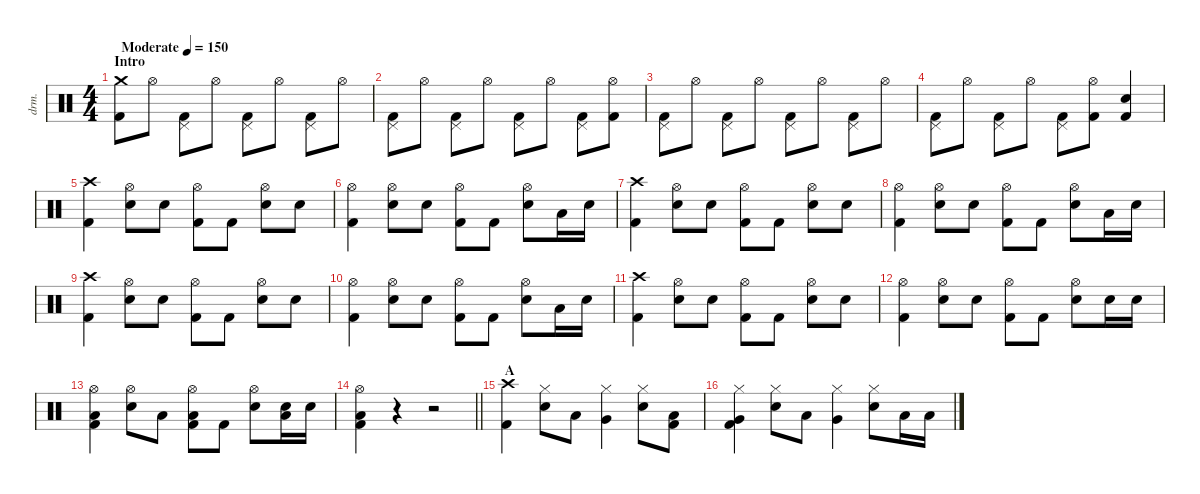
\defaultSystemsLayout 4
\hideDynamics
\bracketExtendMode nobrackets
\otherSystemsTrackNameOrientation horizontal
\track ("Drum" "drm.") {instrument percussion}
\staff {score}
\articulation defaults
\ts (4 4)
\beaming (8 2 2 2 2)
\section ("" "Intro")
\tempo (150 "Moderate")
\clef neutral
\ks c
("Crash medium (hit)" "Kick (hit) 2").8{dy f beam Down} "Hi-Hat (open)".8{beam Down} ("Kick (hit) 2" "Pedal Hi-Hat (hit)").8{beam Down} "Hi-Hat (open)".8{beam Down} ("Kick (hit) 2" "Pedal Hi-Hat (hit)").8{beam Down} "Hi-Hat (open)".8{beam Down} ("Kick (hit) 2" "Pedal Hi-Hat (hit)").8{beam Down} "Hi-Hat (open)".8{beam Down} |
("Pedal Hi-Hat (hit)" "Kick (hit) 2").8{beam Down} "Hi-Hat (open)".8{beam Down} ("Kick (hit) 2" "Pedal Hi-Hat (hit)").8{beam Down} "Hi-Hat (open)".8{beam Down} ("Kick (hit) 2" "Pedal Hi-Hat (hit)").8{beam Down} "Hi-Hat (open)".8{beam Down} ("Kick (hit) 2" "Pedal Hi-Hat (hit)").8{beam Down} ("Hi-Hat (open)" "Kick (hit) 2").8{beam Down} |
("Pedal Hi-Hat (hit)" "Kick (hit) 2").8{beam Down} "Hi-Hat (open)".8{beam Down} ("Kick (hit) 2" "Pedal Hi-Hat (hit)").8{beam Down} "Hi-Hat (open)".8{beam Down} ("Kick (hit) 2" "Pedal Hi-Hat (hit)").8{beam Down} "Hi-Hat (open)".8{beam Down} ("Kick (hit) 2" "Pedal Hi-Hat (hit)").8{beam Down} "Hi-Hat (open)".8{beam Down} |
("Pedal Hi-Hat (hit)" "Kick (hit) 2").8{beam Down} "Hi-Hat (open)".8{beam Down} ("Kick (hit) 2" "Pedal Hi-Hat (hit)").8{beam Down} "Hi-Hat (open)".8{beam Down} ("Kick (hit) 2" "Pedal Hi-Hat (hit)").8{beam Down} ("Hi-Hat (open)" "Kick (hit) 2").8{beam Down} ("Kick (hit) 2" "Snare (hit) 2").4{beam Up} |
("Crash high (hit)" "Kick (hit) 2").4{dy ff beam Down} ("Snare (hit) 2" "Hi-Hat (open)").8{beam Down} "Snare (hit) 2".8{beam Down} ("Hi-Hat (open)" "Kick (hit) 2").8{beam Down} "Kick (hit) 2".8{dy f beam Down} ("Snare (hit) 2" "Hi-Hat (open)").8{dy ff beam Down} "Snare (hit) 2".8{beam Down} |
("Hi-Hat (open)" "Kick (hit) 2").4{beam Down} ("Snare (hit) 2" "Hi-Hat (open)").8{beam Down} "Snare (hit) 2".8{beam Down} ("Hi-Hat (open)" "Kick (hit) 2").8{beam Down} "Kick (hit) 2".8{dy f beam Down} ("Snare (hit) 2" "Hi-Hat (open)").8{dy ff beam Down} "Low Floor Tom (hit)".16{beam Down} "Snare (hit) 2".16{beam Down} |
("Crash high (hit)" "Kick (hit) 2").4{beam Down} ("Snare (hit) 2" "Hi-Hat (open)").8{beam Down} "Snare (hit) 2".8{beam Down} ("Hi-Hat (open)" "Kick (hit) 2").8{beam Down} "Kick (hit) 2".8{dy f beam Down} ("Snare (hit) 2" "Hi-Hat (open)").8{dy ff beam Down} "Snare (hit) 2".8{beam Down} |
("Hi-Hat (open)" "Kick (hit) 2").4{beam Down} ("Snare (hit) 2" "Hi-Hat (open)").8{beam Down} "Snare (hit) 2".8{beam Down} ("Hi-Hat (open)" "Kick (hit) 2").8{beam Down} "Kick (hit) 2".8{dy f beam Down} ("Snare (hit) 2" "Hi-Hat (open)").8{dy ff beam Down} "Low Floor Tom (hit)".16{beam Down} "Snare (hit) 2".16{beam Down} |
("Crash high (hit)" "Kick (hit) 2").4{beam Down} ("Snare (hit) 2" "Hi-Hat (open)").8{beam Down} "Snare (hit) 2".8{beam Down} ("Hi-Hat (open)" "Kick (hit) 2").8{beam Down} "Kick (hit) 2".8{dy f beam Down} ("Snare (hit) 2" "Hi-Hat (open)").8{dy ff beam Down} "Snare (hit) 2".8{beam Down} |
("Hi-Hat (open)" "Kick (hit) 2").4{beam Down} ("Snare (hit) 2" "Hi-Hat (open)").8{beam Down} "Snare (hit) 2".8{beam Down} ("Hi-Hat (open)" "Kick (hit) 2").8{beam Down} "Kick (hit) 2".8{dy f beam Down} ("Snare (hit) 2" "Hi-Hat (open)").8{dy ff beam Down} "Low Floor Tom (hit)".16{beam Down} "Snare (hit) 2".16{beam Down} |
("Crash high (hit)" "Kick (hit) 2").4{beam Down} ("Snare (hit) 2" "Hi-Hat (open)").8{beam Down} "Snare (hit) 2".8{beam Down} ("Hi-Hat (open)" "Kick (hit) 2").8{beam Down} "Kick (hit) 2".8{dy f beam Down} ("Snare (hit) 2" "Hi-Hat (open)").8{dy ff beam Down} "Snare (hit) 2".8{beam Down} |
("Hi-Hat (open)" "Kick (hit) 2").4{beam Down} ("Snare (hit) 2" "Hi-Hat (open)").8{beam Down} "Snare (hit) 2".8{beam Down} ("Hi-Hat (open)" "Kick (hit) 2").8{beam Down} "Kick (hit) 2".8{dy f beam Down} ("Snare (hit) 2" "Hi-Hat (open)").8{dy ff beam Down} "Snare (hit) 2".16{beam Down} "Snare (hit) 2".16{beam Down} |
("Hi-Hat (open)" "Kick (hit) 2" "Low Tom (hit)").4{beam Down} ("Hi-Hat (open)" "Snare (hit) 2").8{beam Down} "Low Tom (hit)".8{dy fff beam Down} ("Hi-Hat (open)" "Kick (hit) 2" "Low Tom (hit)").8{dy ff beam Down} "Kick (hit) 2".8{dy f beam Down} ("Hi-Hat (open)" "Snare (hit) 2").8{dy ff beam Down} ("Snare (hit) 2" "Low Tom (hit)").16{dy fff beam Down} "Snare (hit) 2".16{beam Down} |
\barLineRight lightlight
("Hi-Hat (open)" "Kick (hit) 2" "Low Tom (hit)").4{dy ff beam Down} r.4{beam Down} r.2{beam Down} |
\section ("" " A")
("Crash high (hit)" "Kick (hit) 2").4{beam Down} ("Hi-Hat (closed)" "Snare (hit) 2").8{beam Down} "Low Tom (hit)".8{beam Down} ("Hi-Hat (closed)" "Very Low Tom (hit)").4{beam Down} ("Hi-Hat (closed)" "Snare (hit) 2").8{beam Down} ("Low Tom (hit)" "Kick (hit) 2").8{beam Down} |
("Hi-Hat (closed)" "Very Low Tom (hit)" "Kick (hit) 2").4{beam Down} ("Hi-Hat (closed)" "Snare (hit) 2").8{beam Down} "Low Tom (hit)".8{beam Down} ("Hi-Hat (closed)" "Very Low Tom (hit)").4{beam Down} ("Hi-Hat (closed)" "Snare (hit) 2").8{beam Down} "Low Tom (hit)".16{beam Down} "Low Tom (hit)".16{dy fff beam Down}
